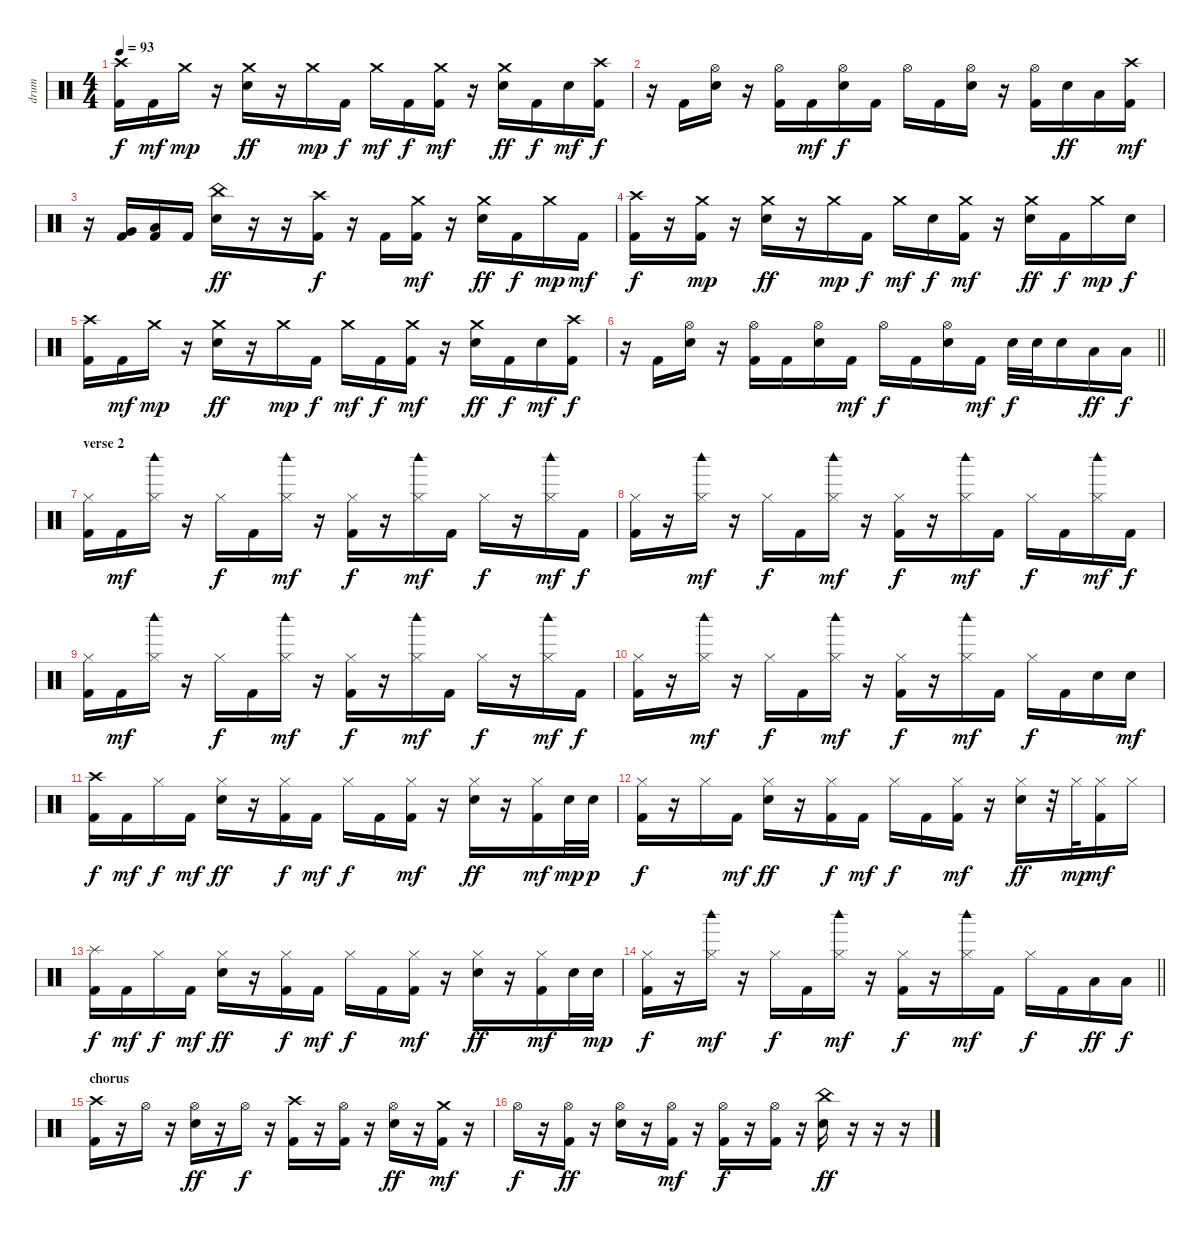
\track ("drum" "drum") {instrument percussion}
\staff {score}
\articulation defaults
\ts (4 4)
\tempo 93
\clef neutral
\ks c
("Crash high (hit)" "Kick (hit) 2").16{dy f} "Kick (hit) 2".16{dy mf} "Crash medium (hit)".16{dy mp} r.16 ("Crash medium (hit)" "Electric Snare (hit)").16{dy ff} r.16 "Crash medium (hit)".16{dy mp} "Kick (hit) 2".16{dy f} "Crash medium (hit)".16{dy mf} "Kick (hit) 2".16{dy f} ("Crash medium (hit)" "Kick (hit) 2").16{dy mf} r.16 ("Crash medium (hit)" "Electric Snare (hit)").16{dy ff} "Kick (hit) 2".16{dy f} "Electric Snare (hit)".16{dy mf} ("Crash high (hit)" "Kick (hit) 2").16{dy f} |
r.16 "Kick (hit) 2".16 ("Hi-Hat (open)" "Electric Snare (hit)").16 r.16 ("Hi-Hat (open)" "Kick (hit) 2").16 "Kick (hit) 2".16{dy mf} ("Hi-Hat (open)" "Electric Snare (hit)").16{dy f} "Kick (hit) 2".16 "Hi-Hat (open)".16 "Kick (hit) 2".16 ("Hi-Hat (open)" "Electric Snare (hit)").16 r.16 ("Hi-Hat (open)" "Kick (hit) 2").16 "Electric Snare (hit)".16{dy ff} "Low Tom (hit)".16 ("Crash high (hit)" "Kick (hit) 2").16{dy mf} |
r.16 ("Very Low Tom (hit)" "Kick (hit) 2").16 ("Low Tom (hit)" "Kick (hit) 2").16 "Kick (hit) 2".16 ("China (hit)" "Electric Snare (hit)").16{dy ff} r.16 r.16 ("Crash high (hit)" "Kick (hit) 2").16{dy f} r.16 "Kick (hit) 2".16 ("Crash medium (hit)" "Kick (hit) 2").16{dy mf} r.16 ("Crash medium (hit)" "Electric Snare (hit)").16{dy ff} "Kick (hit) 2".16{dy f} "Crash medium (hit)".16{dy mp} "Kick (hit) 2".16{dy mf} |
("Crash high (hit)" "Kick (hit) 2").16{dy f} r.16 ("Crash medium (hit)" "Kick (hit) 2").16{dy mp} r.16 ("Crash medium (hit)" "Electric Snare (hit)").16{dy ff} r.16 "Crash medium (hit)".16{dy mp} "Kick (hit) 2".16{dy f} "Crash medium (hit)".16{dy mf} "Electric Snare (hit)".16{dy f} ("Crash medium (hit)" "Kick (hit) 2").16{dy mf} r.16 ("Crash medium (hit)" "Electric Snare (hit)").16{dy ff} "Kick (hit) 2".16{dy f} "Crash medium (hit)".16{dy mp} "Electric Snare (hit)".16{dy f} |
("Crash high (hit)" "Kick (hit) 2").16 "Kick (hit) 2".16{dy mf} "Crash medium (hit)".16{dy mp} r.16 ("Crash medium (hit)" "Electric Snare (hit)").16{dy ff} r.16 "Crash medium (hit)".16{dy mp} "Kick (hit) 2".16{dy f} "Crash medium (hit)".16{dy mf} "Kick (hit) 2".16{dy f} ("Crash medium (hit)" "Kick (hit) 2").16{dy mf} r.16 ("Crash medium (hit)" "Electric Snare (hit)").16{dy ff} "Kick (hit) 2".16{dy f} "Electric Snare (hit)".16{dy mf} ("Crash high (hit)" "Kick (hit) 2").16{dy f} |
\barLineRight lightlight
r.16 "Kick (hit) 2".16 ("Hi-Hat (open)" "Electric Snare (hit)").16 r.16 ("Hi-Hat (open)" "Kick (hit) 2").16 "Kick (hit) 2".16 ("Hi-Hat (open)" "Electric Snare (hit)").16 "Kick (hit) 2".16{dy mf} "Hi-Hat (open)".16{dy f} "Kick (hit) 2".16 ("Hi-Hat (open)" "Electric Snare (hit)").16 "Kick (hit) 2".16{dy mf} "Electric Snare (hit)".32{dy f} "Electric Snare (hit)".32 "Electric Snare (hit)".16 "Low Tom (hit)".16{dy ff} "Low Tom (hit)".16{dy f} |
\section ("" "verse 2")
("Hi-Hat (closed)" "Kick (hit) 2").16 "Kick (hit) 2".16{dy mf} ("Hi-Hat (closed)" "Woodblock high (hit)").16 r.16 "Hi-Hat (closed)".16{dy f} "Kick (hit) 2".16 ("Hi-Hat (closed)" "Woodblock high (hit)").16{dy mf} r.16 ("Hi-Hat (closed)" "Kick (hit) 2").16{dy f} r.16 ("Hi-Hat (closed)" "Woodblock high (hit)").16{dy mf} "Kick (hit) 2".16 "Hi-Hat (closed)".16{dy f} r.16 ("Hi-Hat (closed)" "Woodblock high (hit)").16{dy mf} "Kick (hit) 2".16{dy f} |
("Hi-Hat (closed)" "Kick (hit) 2").16 r.16 ("Hi-Hat (closed)" "Woodblock high (hit)").16{dy mf} r.16 "Hi-Hat (closed)".16{dy f} "Kick (hit) 2".16 ("Hi-Hat (closed)" "Woodblock high (hit)").16{dy mf} r.16 ("Hi-Hat (closed)" "Kick (hit) 2").16{dy f} r.16 ("Hi-Hat (closed)" "Woodblock high (hit)").16{dy mf} "Kick (hit) 2".16 "Hi-Hat (closed)".16{dy f} "Kick (hit) 2".16 ("Hi-Hat (closed)" "Woodblock high (hit)").16{dy mf} "Kick (hit) 2".16{dy f} |
("Hi-Hat (closed)" "Kick (hit) 2").16 "Kick (hit) 2".16{dy mf} ("Hi-Hat (closed)" "Woodblock high (hit)").16 r.16 "Hi-Hat (closed)".16{dy f} "Kick (hit) 2".16 ("Hi-Hat (closed)" "Woodblock high (hit)").16{dy mf} r.16 ("Hi-Hat (closed)" "Kick (hit) 2").16{dy f} r.16 ("Hi-Hat (closed)" "Woodblock high (hit)").16{dy mf} "Kick (hit) 2".16 "Hi-Hat (closed)".16{dy f} r.16 ("Hi-Hat (closed)" "Woodblock high (hit)").16{dy mf} "Kick (hit) 2".16{dy f} |
("Hi-Hat (closed)" "Kick (hit) 2").16 r.16 ("Hi-Hat (closed)" "Woodblock high (hit)").16{dy mf} r.16 "Hi-Hat (closed)".16{dy f} "Kick (hit) 2".16 ("Hi-Hat (closed)" "Woodblock high (hit)").16{dy mf} r.16 ("Hi-Hat (closed)" "Kick (hit) 2").16{dy f} r.16 ("Hi-Hat (closed)" "Woodblock high (hit)").16{dy mf} "Kick (hit) 2".16 "Hi-Hat (closed)".16{dy f} "Kick (hit) 2".16 "Electric Snare (hit)".16 "Electric Snare (hit)".16{dy mf} |
("Crash high (hit)" "Kick (hit) 2").16{dy f} "Kick (hit) 2".16{dy mf} "Hi-Hat (closed)".16{dy f} "Kick (hit) 2".16{dy mf} ("Hi-Hat (closed)" "Electric Snare (hit)").16{dy ff} r.16 ("Hi-Hat (closed)" "Kick (hit) 2").16{dy f} "Kick (hit) 2".16{dy mf} "Hi-Hat (closed)".16{dy f} "Kick (hit) 2".16 ("Hi-Hat (closed)" "Kick (hit) 2").16{dy mf} r.16 ("Hi-Hat (closed)" "Electric Snare (hit)").16{dy ff} r.16 ("Hi-Hat (closed)" "Kick (hit) 2").16{dy mf} "Electric Snare (hit)".32{dy mp} "Electric Snare (hit)".32{dy p} |
("Hi-Hat (closed)" "Kick (hit) 2").16{dy f} r.16 "Hi-Hat (closed)".16 "Kick (hit) 2".16{dy mf} ("Hi-Hat (closed)" "Electric Snare (hit)").16{dy ff} r.16 ("Hi-Hat (closed)" "Kick (hit) 2").16{dy f} "Kick (hit) 2".16{dy mf} "Hi-Hat (closed)".16{dy f} "Kick (hit) 2".16 ("Hi-Hat (closed)" "Kick (hit) 2").16{dy mf} r.16 ("Hi-Hat (closed)" "Electric Snare (hit)").16{dy ff} r.32 "Hi-Hat (closed)".32{dy mp} ("Hi-Hat (closed)" "Kick (hit) 2").16{dy mf} "Hi-Hat (closed)".16 |
("Splash (hit)" "Kick (hit) 2").16{dy f} "Kick (hit) 2".16{dy mf} "Hi-Hat (closed)".16{dy f} "Kick (hit) 2".16{dy mf} ("Hi-Hat (closed)" "Electric Snare (hit)").16{dy ff} r.16 ("Hi-Hat (closed)" "Kick (hit) 2").16{dy f} "Kick (hit) 2".16{dy mf} "Hi-Hat (closed)".16{dy f} "Kick (hit) 2".16 ("Hi-Hat (closed)" "Kick (hit) 2").16{dy mf} r.16 ("Hi-Hat (closed)" "Electric Snare (hit)").16{dy ff} r.16 ("Hi-Hat (closed)" "Kick (hit) 2").16{dy mf} "Electric Snare (hit)".32 "Electric Snare (hit)".32{dy mp} |
\barLineRight lightlight
("Hi-Hat (closed)" "Kick (hit) 2").16{dy f} r.16 ("Hi-Hat (closed)" "Woodblock high (hit)").16{dy mf} r.16 "Hi-Hat (closed)".16{dy f} "Kick (hit) 2".16 ("Hi-Hat (closed)" "Woodblock high (hit)").16{dy mf} r.16 ("Hi-Hat (closed)" "Kick (hit) 2").16{dy f} r.16 ("Hi-Hat (closed)" "Woodblock high (hit)").16{dy mf} "Kick (hit) 2".16 "Hi-Hat (closed)".16{dy f} "Kick (hit) 2".16 "Low Tom (hit)".16{dy ff} "Low Tom (hit)".16{dy f} |
\section ("" "chorus")
("Crash high (hit)" "Kick (hit) 2").16 r.16 "Hi-Hat (open)".16 r.16 ("Hi-Hat (open)" "Electric Snare (hit)").16{dy ff} r.16 "Hi-Hat (open)".16{dy f} r.16 ("Crash high (hit)" "Kick (hit) 2").16 r.16 ("Hi-Hat (open)" "Kick (hit) 2").16 r.16 ("Hi-Hat (open)" "Electric Snare (hit)").16{dy ff} r.16 ("Crash medium (hit)" "Kick (hit) 2").16{dy mf} r.16 |
"Hi-Hat (open)".16{dy f} r.16 ("Hi-Hat (open)" "Kick (hit) 2").16{dy ff} r.16 ("Hi-Hat (open)" "Electric Snare (hit)").16 r.16 ("Hi-Hat (open)" "Kick (hit) 2").16{dy mf} r.16 ("Hi-Hat (open)" "Kick (hit) 2").16{dy f} r.16 ("Hi-Hat (open)" "Kick (hit) 2").16 r.16 ("China (hit)" "Electric Snare (hit)").16{dy ff} r.16 r.16 r.16
